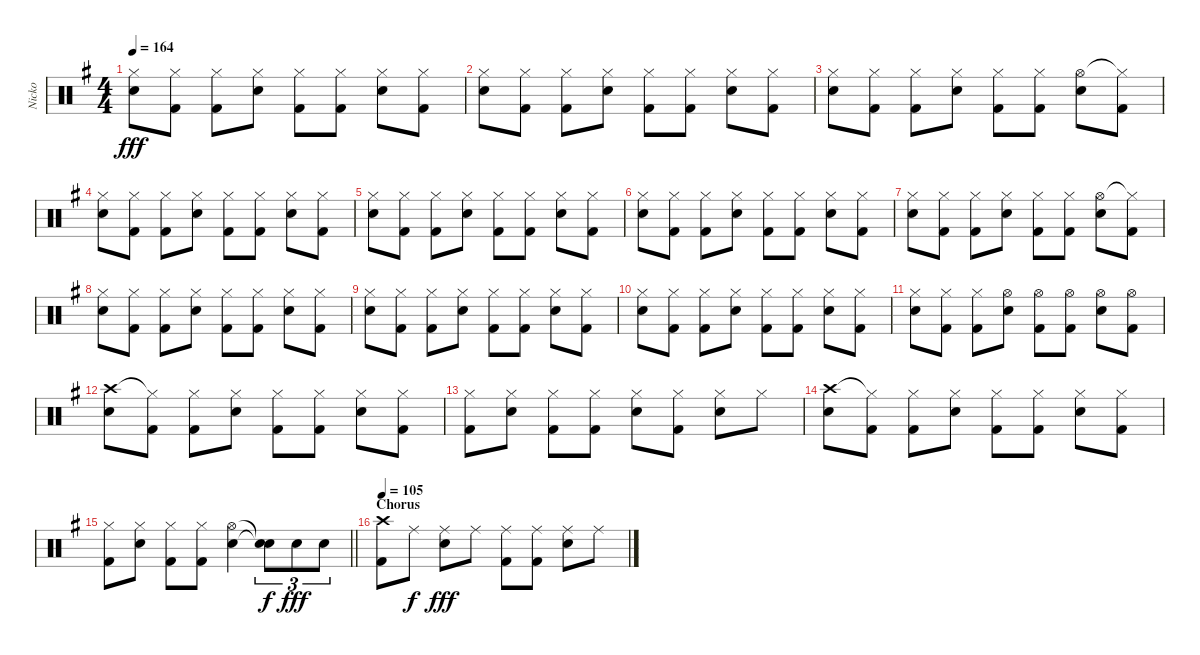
\track ("Nicko" "Nicko") {instrument percussion}
\staff {score}
\articulation defaults
\ts (4 4)
\tempo 164
\clef neutral
\ks eminor
("Hi-Hat (closed)" "Snare (hit) 2").8{dy fff} ("Hi-Hat (closed)" "Kick (hit) 2").8 ("Hi-Hat (closed)" "Kick (hit) 2").8 ("Hi-Hat (closed)" "Snare (hit) 2").8 ("Hi-Hat (closed)" "Kick (hit) 2").8 ("Hi-Hat (closed)" "Kick (hit) 2").8 ("Hi-Hat (closed)" "Snare (hit) 2").8 ("Hi-Hat (closed)" "Kick (hit) 2").8 |
("Hi-Hat (closed)" "Snare (hit) 2").8 ("Hi-Hat (closed)" "Kick (hit) 2").8 ("Hi-Hat (closed)" "Kick (hit) 2").8 ("Hi-Hat (closed)" "Snare (hit) 2").8 ("Hi-Hat (closed)" "Kick (hit) 2").8 ("Hi-Hat (closed)" "Kick (hit) 2").8 ("Hi-Hat (closed)" "Snare (hit) 2").8 ("Hi-Hat (closed)" "Kick (hit) 2").8 |
("Hi-Hat (closed)" "Snare (hit) 2").8 ("Hi-Hat (closed)" "Kick (hit) 2").8 ("Hi-Hat (closed)" "Kick (hit) 2").8 ("Hi-Hat (closed)" "Snare (hit) 2").8 ("Hi-Hat (closed)" "Kick (hit) 2").8 ("Hi-Hat (closed)" "Kick (hit) 2").8 ("Hi-Hat (open)" "Snare (hit) 2").8 ("Hi-Hat (closed)"{t} "Kick (hit) 2").8 |
("Hi-Hat (closed)" "Snare (hit) 2").8 ("Hi-Hat (closed)" "Kick (hit) 2").8 ("Hi-Hat (closed)" "Kick (hit) 2").8 ("Hi-Hat (closed)" "Snare (hit) 2").8 ("Hi-Hat (closed)" "Kick (hit) 2").8 ("Hi-Hat (closed)" "Kick (hit) 2").8 ("Hi-Hat (closed)" "Snare (hit) 2").8 ("Hi-Hat (closed)" "Kick (hit) 2").8 |
("Hi-Hat (closed)" "Snare (hit) 2").8 ("Hi-Hat (closed)" "Kick (hit) 2").8 ("Hi-Hat (closed)" "Kick (hit) 2").8 ("Hi-Hat (closed)" "Snare (hit) 2").8 ("Hi-Hat (closed)" "Kick (hit) 2").8 ("Hi-Hat (closed)" "Kick (hit) 2").8 ("Hi-Hat (closed)" "Snare (hit) 2").8 ("Hi-Hat (closed)" "Kick (hit) 2").8 |
("Hi-Hat (closed)" "Snare (hit) 2").8 ("Hi-Hat (closed)" "Kick (hit) 2").8 ("Hi-Hat (closed)" "Kick (hit) 2").8 ("Hi-Hat (closed)" "Snare (hit) 2").8 ("Hi-Hat (closed)" "Kick (hit) 2").8 ("Hi-Hat (closed)" "Kick (hit) 2").8 ("Hi-Hat (closed)" "Snare (hit) 2").8 ("Hi-Hat (closed)" "Kick (hit) 2").8 |
("Hi-Hat (closed)" "Snare (hit) 2").8 ("Hi-Hat (closed)" "Kick (hit) 2").8 ("Hi-Hat (closed)" "Kick (hit) 2").8 ("Hi-Hat (closed)" "Snare (hit) 2").8 ("Hi-Hat (closed)" "Kick (hit) 2").8 ("Hi-Hat (closed)" "Kick (hit) 2").8 ("Hi-Hat (open)" "Snare (hit) 2").8 ("Hi-Hat (closed)"{t} "Kick (hit) 2").8 |
("Hi-Hat (closed)" "Snare (hit) 2").8 ("Hi-Hat (closed)" "Kick (hit) 2").8 ("Hi-Hat (closed)" "Kick (hit) 2").8 ("Hi-Hat (closed)" "Snare (hit) 2").8 ("Hi-Hat (closed)" "Kick (hit) 2").8 ("Hi-Hat (closed)" "Kick (hit) 2").8 ("Hi-Hat (closed)" "Snare (hit) 2").8 ("Hi-Hat (closed)" "Kick (hit) 2").8 |
("Hi-Hat (closed)" "Snare (hit) 2").8 ("Hi-Hat (closed)" "Kick (hit) 2").8 ("Hi-Hat (closed)" "Kick (hit) 2").8 ("Hi-Hat (closed)" "Snare (hit) 2").8 ("Hi-Hat (closed)" "Kick (hit) 2").8 ("Hi-Hat (closed)" "Kick (hit) 2").8 ("Hi-Hat (closed)" "Snare (hit) 2").8 ("Hi-Hat (closed)" "Kick (hit) 2").8 |
("Hi-Hat (closed)" "Snare (hit) 2").8 ("Hi-Hat (closed)" "Kick (hit) 2").8 ("Hi-Hat (closed)" "Kick (hit) 2").8 ("Hi-Hat (closed)" "Snare (hit) 2").8 ("Hi-Hat (closed)" "Kick (hit) 2").8 ("Hi-Hat (closed)" "Kick (hit) 2").8 ("Hi-Hat (closed)" "Snare (hit) 2").8 ("Hi-Hat (closed)" "Kick (hit) 2").8 |
("Hi-Hat (closed)" "Snare (hit) 2").8 ("Hi-Hat (closed)" "Kick (hit) 2").8 ("Hi-Hat (closed)" "Kick (hit) 2").8 ("Hi-Hat (open)" "Snare (hit) 2").8 ("Hi-Hat (open)" "Kick (hit) 2").8 ("Hi-Hat (open)" "Kick (hit) 2").8 ("Hi-Hat (open)" "Snare (hit) 2").8 ("Hi-Hat (open)" "Kick (hit) 2").8 |
("Crash high (hit)" "Snare (hit) 2").8 ("Hi-Hat (closed)"{t} "Kick (hit) 2").8 ("Hi-Hat (closed)" "Kick (hit) 2").8 ("Hi-Hat (closed)" "Snare (hit) 2").8 ("Hi-Hat (closed)" "Kick (hit) 2").8 ("Hi-Hat (closed)" "Kick (hit) 2").8 ("Hi-Hat (closed)" "Snare (hit) 2").8 ("Hi-Hat (closed)" "Kick (hit) 2").8 |
("Hi-Hat (closed)" "Kick (hit) 2").8 ("Hi-Hat (closed)" "Snare (hit) 2").8 ("Hi-Hat (closed)" "Kick (hit) 2").8 ("Hi-Hat (closed)" "Kick (hit) 2").8 ("Hi-Hat (closed)" "Snare (hit) 2").8 ("Hi-Hat (closed)" "Kick (hit) 2").8 ("Hi-Hat (closed)" "Snare (hit) 2").8 "Hi-Hat (closed)".8 |
("Crash high (hit)" "Snare (hit) 2").8 ("Hi-Hat (closed)"{t} "Kick (hit) 2").8 ("Hi-Hat (closed)" "Kick (hit) 2").8 ("Hi-Hat (closed)" "Snare (hit) 2").8 ("Hi-Hat (closed)" "Kick (hit) 2").8 ("Hi-Hat (closed)" "Kick (hit) 2").8 ("Hi-Hat (closed)" "Snare (hit) 2").8 ("Hi-Hat (closed)" "Kick (hit) 2").8 |
\barLineRight lightlight
("Hi-Hat (closed)" "Kick (hit) 2").8 ("Hi-Hat (closed)" "Snare (hit) 2").8 ("Hi-Hat (closed)" "Kick (hit) 2").8 ("Hi-Hat (closed)" "Kick (hit) 2").8 ("Hi-Hat (open)" "Snare (hit) 2").4 ("Snare (hit)"{t} "Snare (hit)"{t}).8{tu (3 2) dy f} "Snare (hit) 2".8{tu (3 2) dy fff} "Snare (hit) 2".8{tu (3 2)} |
\section ("" "Chorus")
\tempo 105
("Crash high (hit)" "Kick (hit) 2").8 "Ride (middle)".8{dy f} ("Ride (middle)" "Snare (hit) 2").8{dy fff} "Ride (middle)".8 ("Ride (middle)" "Kick (hit) 2").8 ("Ride (middle)" "Kick (hit) 2").8 ("Ride (middle)" "Snare (hit) 2").8 "Ride (middle)".8
